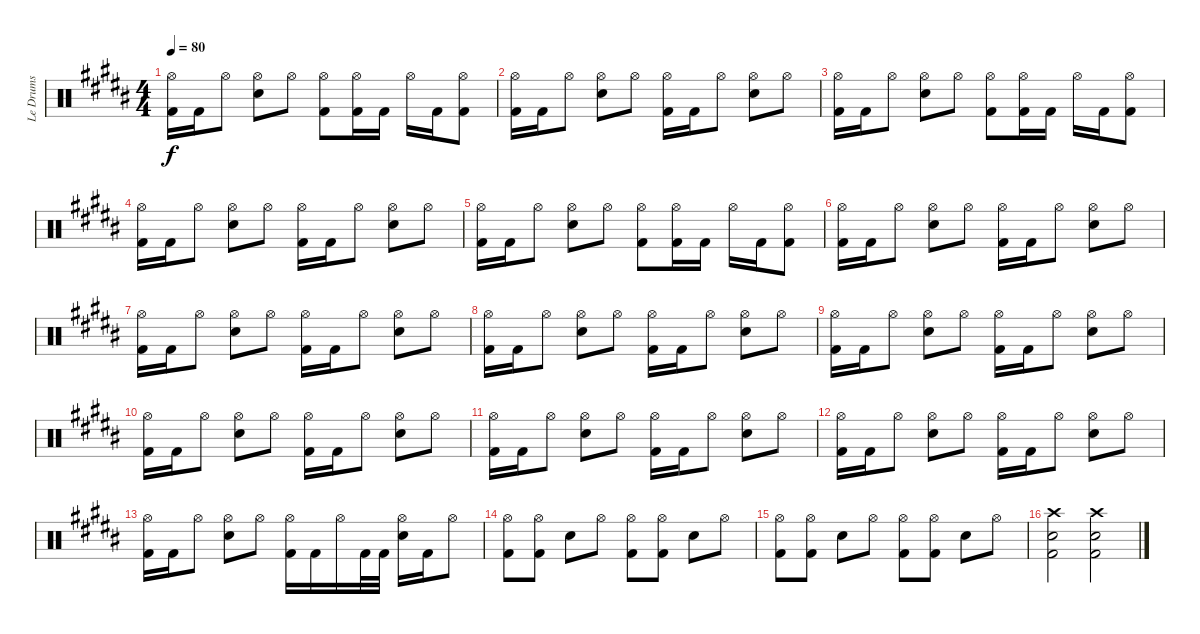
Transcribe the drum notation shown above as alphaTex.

\track ("Le Drums" "Le Drums") {instrument percussion}
\staff {score}
\articulation defaults
\ts (4 4)
\tempo 80
\clef neutral
\ks b
("Hi-Hat (open)" "Kick (hit) 2").16{dy f} "Kick (hit) 2".16 "Hi-Hat (open)".8 ("Hi-Hat (open)" "Snare (hit) 2").8 "Hi-Hat (open)".8 ("Hi-Hat (open)" "Kick (hit) 2").8 ("Hi-Hat (open)" "Kick (hit) 2").16 "Kick (hit) 2".16 "Hi-Hat (open)".16 "Kick (hit) 2".16 ("Hi-Hat (open)" "Kick (hit) 2").8 |
("Hi-Hat (open)" "Kick (hit) 2").16 "Kick (hit) 2".16 "Hi-Hat (open)".8 ("Hi-Hat (open)" "Snare (hit) 2").8 "Hi-Hat (open)".8 ("Hi-Hat (open)" "Kick (hit) 2").16 "Kick (hit) 2".16 "Hi-Hat (open)".8 ("Hi-Hat (open)" "Snare (hit) 2").8 "Hi-Hat (open)".8 |
("Hi-Hat (open)" "Kick (hit) 2").16 "Kick (hit) 2".16 "Hi-Hat (open)".8 ("Hi-Hat (open)" "Snare (hit) 2").8 "Hi-Hat (open)".8 ("Hi-Hat (open)" "Kick (hit) 2").8 ("Hi-Hat (open)" "Kick (hit) 2").16 "Kick (hit) 2".16 "Hi-Hat (open)".16 "Kick (hit) 2".16 ("Hi-Hat (open)" "Kick (hit) 2").8 |
("Hi-Hat (open)" "Kick (hit) 2").16 "Kick (hit) 2".16 "Hi-Hat (open)".8 ("Hi-Hat (open)" "Snare (hit) 2").8 "Hi-Hat (open)".8 ("Hi-Hat (open)" "Kick (hit) 2").16 "Kick (hit) 2".16 "Hi-Hat (open)".8 ("Hi-Hat (open)" "Snare (hit) 2").8 "Hi-Hat (open)".8 |
("Hi-Hat (open)" "Kick (hit) 2").16 "Kick (hit) 2".16 "Hi-Hat (open)".8 ("Hi-Hat (open)" "Snare (hit) 2").8 "Hi-Hat (open)".8 ("Hi-Hat (open)" "Kick (hit) 2").8 ("Hi-Hat (open)" "Kick (hit) 2").16 "Kick (hit) 2".16 "Hi-Hat (open)".16 "Kick (hit) 2".16 ("Hi-Hat (open)" "Kick (hit) 2").8 |
("Hi-Hat (open)" "Kick (hit) 2").16 "Kick (hit) 2".16 "Hi-Hat (open)".8 ("Hi-Hat (open)" "Snare (hit) 2").8 "Hi-Hat (open)".8 ("Hi-Hat (open)" "Kick (hit) 2").16 "Kick (hit) 2".16 "Hi-Hat (open)".8 ("Hi-Hat (open)" "Snare (hit) 2").8 "Hi-Hat (open)".8 |
("Hi-Hat (open)" "Kick (hit) 2").16 "Kick (hit) 2".16 "Hi-Hat (open)".8 ("Hi-Hat (open)" "Snare (hit) 2").8 "Hi-Hat (open)".8 ("Hi-Hat (open)" "Kick (hit) 2").16 "Kick (hit) 2".16 "Hi-Hat (open)".8 ("Hi-Hat (open)" "Snare (hit) 2").8 "Hi-Hat (open)".8 |
("Hi-Hat (open)" "Kick (hit) 2").16 "Kick (hit) 2".16 "Hi-Hat (open)".8 ("Hi-Hat (open)" "Snare (hit) 2").8 "Hi-Hat (open)".8 ("Hi-Hat (open)" "Kick (hit) 2").16 "Kick (hit) 2".16 "Hi-Hat (open)".8 ("Hi-Hat (open)" "Snare (hit) 2").8 "Hi-Hat (open)".8 |
("Hi-Hat (open)" "Kick (hit) 2").16 "Kick (hit) 2".16 "Hi-Hat (open)".8 ("Hi-Hat (open)" "Snare (hit) 2").8 "Hi-Hat (open)".8 ("Hi-Hat (open)" "Kick (hit) 2").16 "Kick (hit) 2".16 "Hi-Hat (open)".8 ("Hi-Hat (open)" "Snare (hit) 2").8 "Hi-Hat (open)".8 |
("Hi-Hat (open)" "Kick (hit) 2").16 "Kick (hit) 2".16 "Hi-Hat (open)".8 ("Hi-Hat (open)" "Snare (hit) 2").8 "Hi-Hat (open)".8 ("Hi-Hat (open)" "Kick (hit) 2").16 "Kick (hit) 2".16 "Hi-Hat (open)".8 ("Hi-Hat (open)" "Snare (hit) 2").8 "Hi-Hat (open)".8 |
("Hi-Hat (open)" "Kick (hit) 2").16 "Kick (hit) 2".16 "Hi-Hat (open)".8 ("Hi-Hat (open)" "Snare (hit) 2").8 "Hi-Hat (open)".8 ("Hi-Hat (open)" "Kick (hit) 2").16 "Kick (hit) 2".16 "Hi-Hat (open)".8 ("Hi-Hat (open)" "Snare (hit) 2").8 "Hi-Hat (open)".8 |
("Hi-Hat (open)" "Kick (hit) 2").16 "Kick (hit) 2".16 "Hi-Hat (open)".8 ("Hi-Hat (open)" "Snare (hit) 2").8 "Hi-Hat (open)".8 ("Hi-Hat (open)" "Kick (hit) 2").16 "Kick (hit) 2".16 "Hi-Hat (open)".8 ("Hi-Hat (open)" "Snare (hit) 2").8 "Hi-Hat (open)".8 |
("Hi-Hat (open)" "Kick (hit) 2").16 "Kick (hit) 2".16 "Hi-Hat (open)".8 ("Hi-Hat (open)" "Snare (hit) 2").8 "Hi-Hat (open)".8 ("Hi-Hat (open)" "Kick (hit) 2").16 "Kick (hit) 2".16 "Hi-Hat (open)".16 "Kick (hit) 2".32 "Kick (hit) 2".32 ("Hi-Hat (open)" "Snare (hit) 2").16 "Kick (hit) 2".16 "Hi-Hat (open)".8 |
("Hi-Hat (open)" "Kick (hit) 2").8 ("Hi-Hat (open)" "Kick (hit) 2").8 "Snare (hit) 2".8 "Hi-Hat (open)".8 ("Hi-Hat (open)" "Kick (hit) 2").8 ("Hi-Hat (open)" "Kick (hit) 2").8 "Snare (hit) 2".8 "Hi-Hat (open)".8 |
("Hi-Hat (open)" "Kick (hit) 2").8 ("Hi-Hat (open)" "Kick (hit) 2").8 "Snare (hit) 2".8 "Hi-Hat (open)".8 ("Hi-Hat (open)" "Kick (hit) 2").8 ("Hi-Hat (open)" "Kick (hit) 2").8 "Snare (hit) 2".8 "Hi-Hat (open)".8 |
("Crash high (hit)" "Snare (hit) 2" "Kick (hit) 2").2 ("Crash high (hit)" "Snare (hit) 2" "Kick (hit) 2").2
